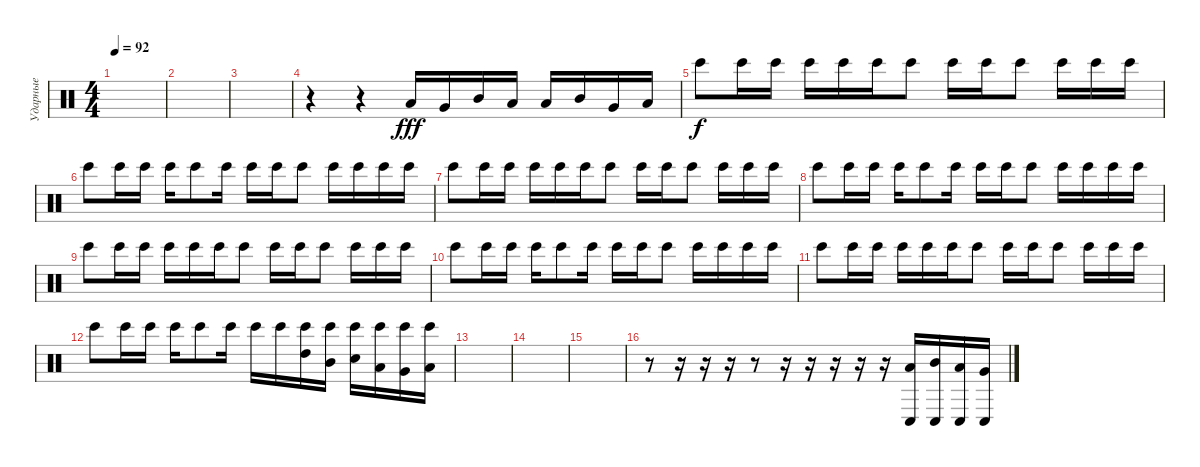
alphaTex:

\track ("Ударные" "Ударные") {instrument percussion}
\staff {score}
\articulation defaults
\ts (4 4)
\tempo 92
\clef neutral
\ks c
|
|
|
r.4 r.4 "Low Tom (hit)".16{dy fff} "Very Low Tom (hit)".16 "Mid Tom (hit)".16 "Low Floor Tom (hit)".16 "Low Tom (hit)".16 "Mid Tom (hit)".16 "Very Low Tom (hit)".16 "Low Tom (hit)".16 |
"Bongo High (hit)".8{dy f} "Bongo High (hit)".16 "Bongo High (hit)".16 "Bongo High (hit)".16 "Bongo High (hit)".16 "Bongo High (hit)".16 "Bongo High (hit)".8 "Bongo High (hit)".16 "Bongo High (hit)".16 "Bongo High (hit)".8 "Bongo High (hit)".16 "Bongo High (hit)".16 "Bongo High (hit)".16 |
"Bongo High (hit)".8 "Bongo High (hit)".16 "Bongo High (hit)".16 "Bongo High (hit)".16 "Bongo High (hit)".8 "Bongo High (hit)".16 "Bongo High (hit)".16 "Bongo High (hit)".16 "Bongo High (hit)".8 "Bongo High (hit)".16 "Bongo High (hit)".16 "Bongo High (hit)".16 "Bongo High (hit)".16 |
"Bongo High (hit)".8 "Bongo High (hit)".16 "Bongo High (hit)".16 "Bongo High (hit)".16 "Bongo High (hit)".16 "Bongo High (hit)".16 "Bongo High (hit)".8 "Bongo High (hit)".16 "Bongo High (hit)".16 "Bongo High (hit)".8 "Bongo High (hit)".16 "Bongo High (hit)".16 "Bongo High (hit)".16 |
"Bongo High (hit)".8 "Bongo High (hit)".16 "Bongo High (hit)".16 "Bongo High (hit)".16 "Bongo High (hit)".8 "Bongo High (hit)".16 "Bongo High (hit)".16 "Bongo High (hit)".16 "Bongo High (hit)".8 "Bongo High (hit)".16 "Bongo High (hit)".16 "Bongo High (hit)".16 "Bongo High (hit)".16 |
"Bongo High (hit)".8 "Bongo High (hit)".16 "Bongo High (hit)".16 "Bongo High (hit)".16 "Bongo High (hit)".16 "Bongo High (hit)".16 "Bongo High (hit)".8 "Bongo High (hit)".16 "Bongo High (hit)".16 "Bongo High (hit)".8 "Bongo High (hit)".16 "Bongo High (hit)".16 "Bongo High (hit)".16 |
"Bongo High (hit)".8 "Bongo High (hit)".16 "Bongo High (hit)".16 "Bongo High (hit)".16 "Bongo High (hit)".8 "Bongo High (hit)".16 "Bongo High (hit)".16 "Bongo High (hit)".16 "Bongo High (hit)".8 "Bongo High (hit)".16 "Bongo High (hit)".16 "Bongo High (hit)".16 "Bongo High (hit)".16 |
"Bongo High (hit)".8 "Bongo High (hit)".16 "Bongo High (hit)".16 "Bongo High (hit)".16 "Bongo High (hit)".16 "Bongo High (hit)".16 "Bongo High (hit)".8 "Bongo High (hit)".16 "Bongo High (hit)".16 "Bongo High (hit)".8 "Bongo High (hit)".16 "Bongo High (hit)".16 "Bongo High (hit)".16 |
"Bongo High (hit)".8 "Bongo High (hit)".16 "Bongo High (hit)".16 "Bongo High (hit)".16 "Bongo High (hit)".8 "Bongo High (hit)".16 "Bongo High (hit)".16 "Bongo High (hit)".16 ("Bongo High (hit)" "High Tom (hit)").16 ("Bongo High (hit)" "Mid Tom (hit)").16 ("Bongo High (hit)" "Electric Snare (hit)").16 ("Bongo High (hit)" "Low Tom (hit)").16 ("Bongo High (hit)" "Very Low Tom (hit)").16 ("Bongo High (hit)" "Low Floor Tom (hit)").16 |
|
|
|
r.8 r.16 r.16 r.16 r.8 r.16 r.16 r.16 r.16 r.16 ("Conga low (hit)" "Low Floor Tom (hit)").16 ("Conga low (hit)" "Mid Tom (hit)").16 ("Conga low (hit)" "Low Tom (hit)").16 ("Conga low (hit)" "Very Low Tom (hit)").16
